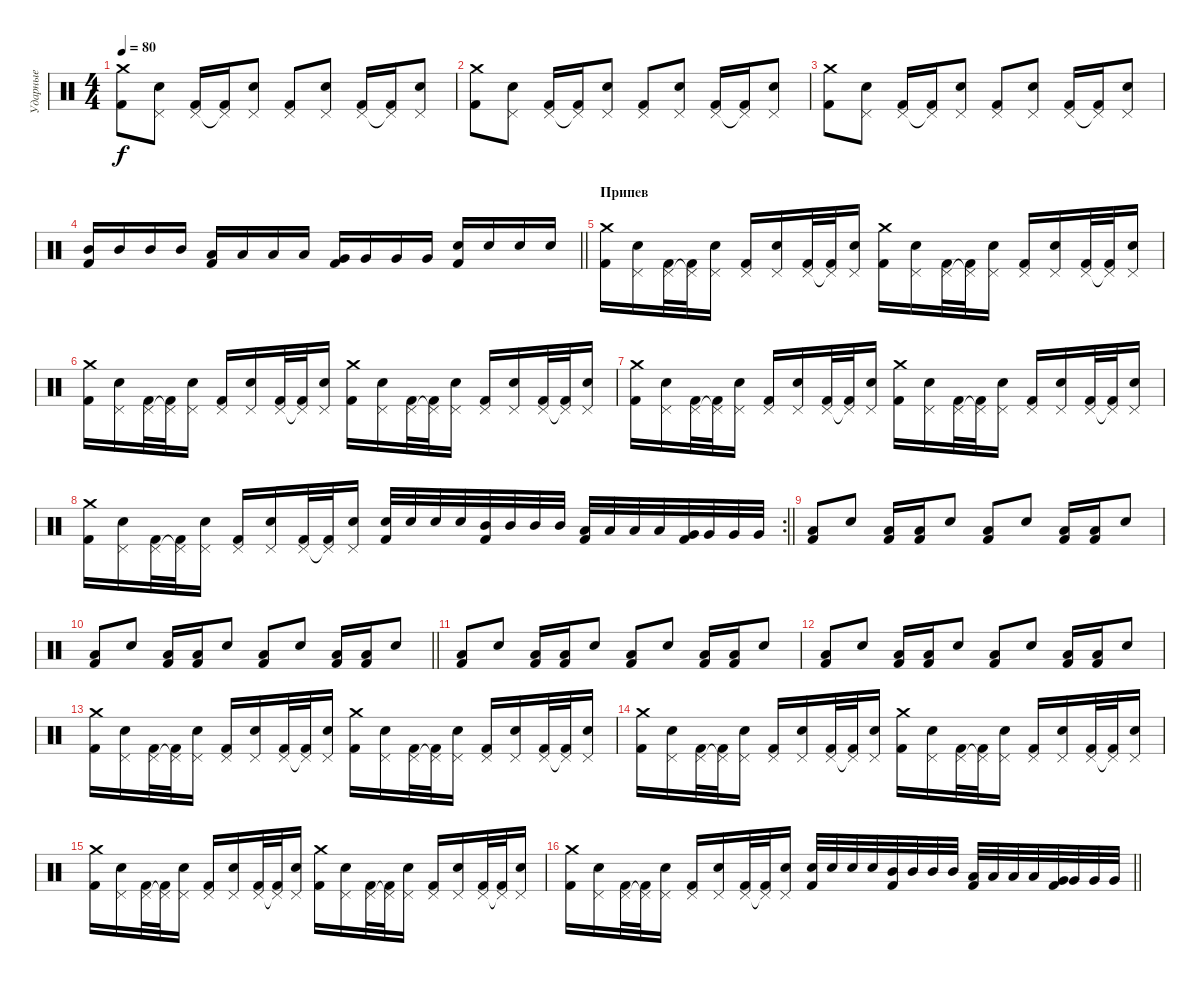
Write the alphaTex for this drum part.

\track ("Ударные" "Ударные") {instrument percussion}
\staff {score}
\articulation defaults
\ts (4 4)
\tempo 80
\clef neutral
\ks c
("Crash medium (hit)" "Kick (hit) 2").8{dy f} ("Pedal Hi-Hat (hit)" "Snare (hit) 2").8 ("Pedal Hi-Hat (hit)" "Kick (hit) 2").16 ("Pedal Hi-Hat (hit)"{t} "Kick (hit) 2").16 ("Pedal Hi-Hat (hit)" "Snare (hit) 2").8 ("Pedal Hi-Hat (hit)" "Kick (hit) 2").8 ("Pedal Hi-Hat (hit)" "Snare (hit) 2").8 ("Pedal Hi-Hat (hit)" "Kick (hit) 2").16 ("Pedal Hi-Hat (hit)"{t} "Kick (hit) 2").16 ("Pedal Hi-Hat (hit)" "Snare (hit) 2").8 |
("Crash medium (hit)" "Kick (hit) 2").8 ("Pedal Hi-Hat (hit)" "Snare (hit) 2").8 ("Pedal Hi-Hat (hit)" "Kick (hit) 2").16 ("Pedal Hi-Hat (hit)"{t} "Kick (hit) 2").16 ("Pedal Hi-Hat (hit)" "Snare (hit) 2").8 ("Pedal Hi-Hat (hit)" "Kick (hit) 2").8 ("Pedal Hi-Hat (hit)" "Snare (hit) 2").8 ("Pedal Hi-Hat (hit)" "Kick (hit) 2").16 ("Pedal Hi-Hat (hit)"{t} "Kick (hit) 2").16 ("Pedal Hi-Hat (hit)" "Snare (hit) 2").8 |
("Crash medium (hit)" "Kick (hit) 2").8 ("Pedal Hi-Hat (hit)" "Snare (hit) 2").8 ("Pedal Hi-Hat (hit)" "Kick (hit) 2").16 ("Pedal Hi-Hat (hit)"{t} "Kick (hit) 2").16 ("Pedal Hi-Hat (hit)" "Snare (hit) 2").8 ("Pedal Hi-Hat (hit)" "Kick (hit) 2").8 ("Pedal Hi-Hat (hit)" "Snare (hit) 2").8 ("Pedal Hi-Hat (hit)" "Kick (hit) 2").16 ("Pedal Hi-Hat (hit)"{t} "Kick (hit) 2").16 ("Pedal Hi-Hat (hit)" "Snare (hit) 2").8 |
\barLineRight lightlight
("Mid Tom (hit)" "Kick (hit) 2").16 "Mid Tom (hit)".16 "Mid Tom (hit)".16 "Mid Tom (hit)".16 ("Low Tom (hit)" "Kick (hit) 2").16 "Low Tom (hit)".16 "Low Tom (hit)".16 "Low Tom (hit)".16 ("Very Low Tom (hit)" "Kick (hit) 2").16 "Very Low Tom (hit)".16 "Very Low Tom (hit)".16 "Very Low Tom (hit)".16 ("Snare (hit) 2" "Kick (hit) 2").16 "Snare (hit) 2".16 "Snare (hit) 2".16 "Snare (hit) 2".16 |
\section ("" "Припев")
("Crash medium (hit)" "Kick (hit) 2").16 ("Pedal Hi-Hat (hit)" "Snare (hit) 2").16 ("Pedal Hi-Hat (hit)" "Kick (hit) 2").32 ("Pedal Hi-Hat (hit)"{t} "Kick (hit) 2").32 ("Pedal Hi-Hat (hit)" "Snare (hit) 2").16 ("Pedal Hi-Hat (hit)" "Kick (hit) 2").16 ("Pedal Hi-Hat (hit)" "Snare (hit) 2").16 ("Pedal Hi-Hat (hit)" "Kick (hit) 2").32 ("Pedal Hi-Hat (hit)"{t} "Kick (hit) 2").32 ("Pedal Hi-Hat (hit)" "Snare (hit) 2").16 ("Crash medium (hit)" "Kick (hit) 2").16 ("Pedal Hi-Hat (hit)" "Snare (hit) 2").16 ("Pedal Hi-Hat (hit)" "Kick (hit) 2").32 ("Pedal Hi-Hat (hit)"{t} "Kick (hit) 2").32 ("Pedal Hi-Hat (hit)" "Snare (hit) 2").16 ("Pedal Hi-Hat (hit)" "Kick (hit) 2").16 ("Pedal Hi-Hat (hit)" "Snare (hit) 2").16 ("Pedal Hi-Hat (hit)" "Kick (hit) 2").32 ("Pedal Hi-Hat (hit)"{t} "Kick (hit) 2").32 ("Pedal Hi-Hat (hit)" "Snare (hit) 2").16 |
("Crash medium (hit)" "Kick (hit) 2").16 ("Pedal Hi-Hat (hit)" "Snare (hit) 2").16 ("Pedal Hi-Hat (hit)" "Kick (hit) 2").32 ("Pedal Hi-Hat (hit)"{t} "Kick (hit) 2").32 ("Pedal Hi-Hat (hit)" "Snare (hit) 2").16 ("Pedal Hi-Hat (hit)" "Kick (hit) 2").16 ("Pedal Hi-Hat (hit)" "Snare (hit) 2").16 ("Pedal Hi-Hat (hit)" "Kick (hit) 2").32 ("Pedal Hi-Hat (hit)"{t} "Kick (hit) 2").32 ("Pedal Hi-Hat (hit)" "Snare (hit) 2").16 ("Crash medium (hit)" "Kick (hit) 2").16 ("Pedal Hi-Hat (hit)" "Snare (hit) 2").16 ("Pedal Hi-Hat (hit)" "Kick (hit) 2").32 ("Pedal Hi-Hat (hit)"{t} "Kick (hit) 2").32 ("Pedal Hi-Hat (hit)" "Snare (hit) 2").16 ("Pedal Hi-Hat (hit)" "Kick (hit) 2").16 ("Pedal Hi-Hat (hit)" "Snare (hit) 2").16 ("Pedal Hi-Hat (hit)" "Kick (hit) 2").32 ("Pedal Hi-Hat (hit)"{t} "Kick (hit) 2").32 ("Pedal Hi-Hat (hit)" "Snare (hit) 2").16 |
("Crash medium (hit)" "Kick (hit) 2").16 ("Pedal Hi-Hat (hit)" "Snare (hit) 2").16 ("Pedal Hi-Hat (hit)" "Kick (hit) 2").32 ("Pedal Hi-Hat (hit)"{t} "Kick (hit) 2").32 ("Pedal Hi-Hat (hit)" "Snare (hit) 2").16 ("Pedal Hi-Hat (hit)" "Kick (hit) 2").16 ("Pedal Hi-Hat (hit)" "Snare (hit) 2").16 ("Pedal Hi-Hat (hit)" "Kick (hit) 2").32 ("Pedal Hi-Hat (hit)"{t} "Kick (hit) 2").32 ("Pedal Hi-Hat (hit)" "Snare (hit) 2").16 ("Crash medium (hit)" "Kick (hit) 2").16 ("Pedal Hi-Hat (hit)" "Snare (hit) 2").16 ("Pedal Hi-Hat (hit)" "Kick (hit) 2").32 ("Pedal Hi-Hat (hit)"{t} "Kick (hit) 2").32 ("Pedal Hi-Hat (hit)" "Snare (hit) 2").16 ("Pedal Hi-Hat (hit)" "Kick (hit) 2").16 ("Pedal Hi-Hat (hit)" "Snare (hit) 2").16 ("Pedal Hi-Hat (hit)" "Kick (hit) 2").32 ("Pedal Hi-Hat (hit)"{t} "Kick (hit) 2").32 ("Pedal Hi-Hat (hit)" "Snare (hit) 2").16 |
\rc 2
\barLineRight lightlight
("Crash medium (hit)" "Kick (hit) 2").16 ("Pedal Hi-Hat (hit)" "Snare (hit) 2").16 ("Pedal Hi-Hat (hit)" "Kick (hit) 2").32 ("Pedal Hi-Hat (hit)"{t} "Kick (hit) 2").32 ("Pedal Hi-Hat (hit)" "Snare (hit) 2").16 ("Pedal Hi-Hat (hit)" "Kick (hit) 2").16 ("Pedal Hi-Hat (hit)" "Snare (hit) 2").16 ("Pedal Hi-Hat (hit)" "Kick (hit) 2").32 ("Pedal Hi-Hat (hit)"{t} "Kick (hit) 2").32 ("Pedal Hi-Hat (hit)" "Snare (hit) 2").16 ("Snare (hit) 2" "Kick (hit) 2").32 "Snare (hit) 2".32 "Snare (hit) 2".32 "Snare (hit) 2".32 ("Mid Tom (hit)" "Kick (hit) 2").32 "Mid Tom (hit)".32 "Mid Tom (hit)".32 "Mid Tom (hit)".32 ("Low Tom (hit)" "Kick (hit) 2").32 "Low Tom (hit)".32 "Low Tom (hit)".32 "Low Tom (hit)".32 ("Very Low Tom (hit)" "Kick (hit) 2").32 "Very Low Tom (hit)".32 "Very Low Tom (hit)".32 "Very Low Tom (hit)".32 |
\section ("" "")
("Low Tom (hit)" "Kick (hit) 2").8 "Snare (hit) 2".8 ("Low Tom (hit)" "Kick (hit) 2").16 ("Low Tom (hit)" "Kick (hit) 2").16 "Snare (hit) 2".8 ("Low Tom (hit)" "Kick (hit) 2").8 "Snare (hit) 2".8 ("Low Tom (hit)" "Kick (hit) 2").16 ("Low Tom (hit)" "Kick (hit) 2").16 "Snare (hit) 2".8 |
\barLineRight lightlight
("Low Tom (hit)" "Kick (hit) 2").8 "Snare (hit) 2".8 ("Low Tom (hit)" "Kick (hit) 2").16 ("Low Tom (hit)" "Kick (hit) 2").16 "Snare (hit) 2".8 ("Low Tom (hit)" "Kick (hit) 2").8 "Snare (hit) 2".8 ("Low Tom (hit)" "Kick (hit) 2").16 ("Low Tom (hit)" "Kick (hit) 2").16 "Snare (hit) 2".8 |
("Low Tom (hit)" "Kick (hit) 2").8 "Snare (hit) 2".8 ("Low Tom (hit)" "Kick (hit) 2").16 ("Low Tom (hit)" "Kick (hit) 2").16 "Snare (hit) 2".8 ("Low Tom (hit)" "Kick (hit) 2").8 "Snare (hit) 2".8 ("Low Tom (hit)" "Kick (hit) 2").16 ("Low Tom (hit)" "Kick (hit) 2").16 "Snare (hit) 2".8 |
("Low Tom (hit)" "Kick (hit) 2").8 "Snare (hit) 2".8 ("Low Tom (hit)" "Kick (hit) 2").16 ("Low Tom (hit)" "Kick (hit) 2").16 "Snare (hit) 2".8 ("Low Tom (hit)" "Kick (hit) 2").8 "Snare (hit) 2".8 ("Low Tom (hit)" "Kick (hit) 2").16 ("Low Tom (hit)" "Kick (hit) 2").16 "Snare (hit) 2".8 |
("Crash medium (hit)" "Kick (hit) 2").16 ("Pedal Hi-Hat (hit)" "Snare (hit) 2").16 ("Pedal Hi-Hat (hit)" "Kick (hit) 2").32 ("Pedal Hi-Hat (hit)"{t} "Kick (hit) 2").32 ("Pedal Hi-Hat (hit)" "Snare (hit) 2").16 ("Pedal Hi-Hat (hit)" "Kick (hit) 2").16 ("Pedal Hi-Hat (hit)" "Snare (hit) 2").16 ("Pedal Hi-Hat (hit)" "Kick (hit) 2").32 ("Pedal Hi-Hat (hit)"{t} "Kick (hit) 2").32 ("Pedal Hi-Hat (hit)" "Snare (hit) 2").16 ("Crash medium (hit)" "Kick (hit) 2").16 ("Pedal Hi-Hat (hit)" "Snare (hit) 2").16 ("Pedal Hi-Hat (hit)" "Kick (hit) 2").32 ("Pedal Hi-Hat (hit)"{t} "Kick (hit) 2").32 ("Pedal Hi-Hat (hit)" "Snare (hit) 2").16 ("Pedal Hi-Hat (hit)" "Kick (hit) 2").16 ("Pedal Hi-Hat (hit)" "Snare (hit) 2").16 ("Pedal Hi-Hat (hit)" "Kick (hit) 2").32 ("Pedal Hi-Hat (hit)"{t} "Kick (hit) 2").32 ("Pedal Hi-Hat (hit)" "Snare (hit) 2").16 |
("Crash medium (hit)" "Kick (hit) 2").16 ("Pedal Hi-Hat (hit)" "Snare (hit) 2").16 ("Pedal Hi-Hat (hit)" "Kick (hit) 2").32 ("Pedal Hi-Hat (hit)"{t} "Kick (hit) 2").32 ("Pedal Hi-Hat (hit)" "Snare (hit) 2").16 ("Pedal Hi-Hat (hit)" "Kick (hit) 2").16 ("Pedal Hi-Hat (hit)" "Snare (hit) 2").16 ("Pedal Hi-Hat (hit)" "Kick (hit) 2").32 ("Pedal Hi-Hat (hit)"{t} "Kick (hit) 2").32 ("Pedal Hi-Hat (hit)" "Snare (hit) 2").16 ("Crash medium (hit)" "Kick (hit) 2").16 ("Pedal Hi-Hat (hit)" "Snare (hit) 2").16 ("Pedal Hi-Hat (hit)" "Kick (hit) 2").32 ("Pedal Hi-Hat (hit)"{t} "Kick (hit) 2").32 ("Pedal Hi-Hat (hit)" "Snare (hit) 2").16 ("Pedal Hi-Hat (hit)" "Kick (hit) 2").16 ("Pedal Hi-Hat (hit)" "Snare (hit) 2").16 ("Pedal Hi-Hat (hit)" "Kick (hit) 2").32 ("Pedal Hi-Hat (hit)"{t} "Kick (hit) 2").32 ("Pedal Hi-Hat (hit)" "Snare (hit) 2").16 |
("Crash medium (hit)" "Kick (hit) 2").16 ("Pedal Hi-Hat (hit)" "Snare (hit) 2").16 ("Pedal Hi-Hat (hit)" "Kick (hit) 2").32 ("Pedal Hi-Hat (hit)"{t} "Kick (hit) 2").32 ("Pedal Hi-Hat (hit)" "Snare (hit) 2").16 ("Pedal Hi-Hat (hit)" "Kick (hit) 2").16 ("Pedal Hi-Hat (hit)" "Snare (hit) 2").16 ("Pedal Hi-Hat (hit)" "Kick (hit) 2").32 ("Pedal Hi-Hat (hit)"{t} "Kick (hit) 2").32 ("Pedal Hi-Hat (hit)" "Snare (hit) 2").16 ("Crash medium (hit)" "Kick (hit) 2").16 ("Pedal Hi-Hat (hit)" "Snare (hit) 2").16 ("Pedal Hi-Hat (hit)" "Kick (hit) 2").32 ("Pedal Hi-Hat (hit)"{t} "Kick (hit) 2").32 ("Pedal Hi-Hat (hit)" "Snare (hit) 2").16 ("Pedal Hi-Hat (hit)" "Kick (hit) 2").16 ("Pedal Hi-Hat (hit)" "Snare (hit) 2").16 ("Pedal Hi-Hat (hit)" "Kick (hit) 2").32 ("Pedal Hi-Hat (hit)"{t} "Kick (hit) 2").32 ("Pedal Hi-Hat (hit)" "Snare (hit) 2").16 |
\barLineRight lightlight
("Crash medium (hit)" "Kick (hit) 2").16 ("Pedal Hi-Hat (hit)" "Snare (hit) 2").16 ("Pedal Hi-Hat (hit)" "Kick (hit) 2").32 ("Pedal Hi-Hat (hit)"{t} "Kick (hit) 2").32 ("Pedal Hi-Hat (hit)" "Snare (hit) 2").16 ("Pedal Hi-Hat (hit)" "Kick (hit) 2").16 ("Pedal Hi-Hat (hit)" "Snare (hit) 2").16 ("Pedal Hi-Hat (hit)" "Kick (hit) 2").32 ("Pedal Hi-Hat (hit)"{t} "Kick (hit) 2").32 ("Pedal Hi-Hat (hit)" "Snare (hit) 2").16 ("Snare (hit) 2" "Kick (hit) 2").32 "Snare (hit) 2".32 "Snare (hit) 2".32 "Snare (hit) 2".32 ("Mid Tom (hit)" "Kick (hit) 2").32 "Mid Tom (hit)".32 "Mid Tom (hit)".32 "Mid Tom (hit)".32 ("Low Tom (hit)" "Kick (hit) 2").32 "Low Tom (hit)".32 "Low Tom (hit)".32 "Low Tom (hit)".32 ("Very Low Tom (hit)" "Kick (hit) 2").32 "Very Low Tom (hit)".32 "Very Low Tom (hit)".32 "Very Low Tom (hit)".32
